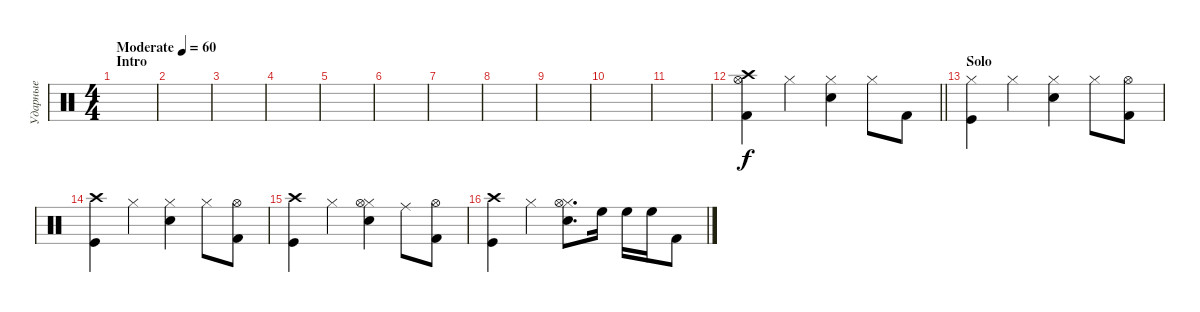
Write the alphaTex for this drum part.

\track ("Ударные" "Ударные") {instrument percussion}
\staff {score}
\articulation defaults
\ts (4 4)
\section ("" "Intro")
\tempo (60 "Moderate")
\clef neutral
\ks c
|
|
|
|
|
|
|
|
|
|
|
\barLineRight lightlight
("Crash high (hit)" "Hi-Hat (open)" "Kick (hit) 2").4 "Hi-Hat (closed)".4 ("Hi-Hat (closed)" "Snare (hit) 2").4 "Hi-Hat (closed)".8 "Kick (hit) 2".8 |
\section ("" "Solo")
("Hi-Hat (closed)" "Kick (hit)").4 "Hi-Hat (closed)".4 ("Hi-Hat (closed)" "Snare (hit) 2").4 "Hi-Hat (closed)".8 ("Hi-Hat (open)" "Kick (hit) 2").8 |
("Crash high (hit)" "Kick (hit)").4 "Hi-Hat (closed)".4 ("Hi-Hat (closed)" "Snare (hit) 2").4 "Hi-Hat (closed)".8 ("Hi-Hat (open)" "Kick (hit) 2").8 |
("Crash high (hit)" "Kick (hit)").4 "Hi-Hat (closed)".4 ("Hi-Hat (closed)" "Hi-Hat (open)" "Snare (hit) 2").4 "Ride (middle)".8 ("Hi-Hat (open)" "Kick (hit) 2").8 |
("Crash high (hit)" "Kick (hit)").4 "Hi-Hat (closed)".4 ("Hi-Hat (closed)" "Hi-Hat (open)" "Snare (hit) 2").8{d} "High Floor Tom (hit)".16 "High Floor Tom (hit)".16 "High Floor Tom (hit)".16 "Kick (hit) 2".8
